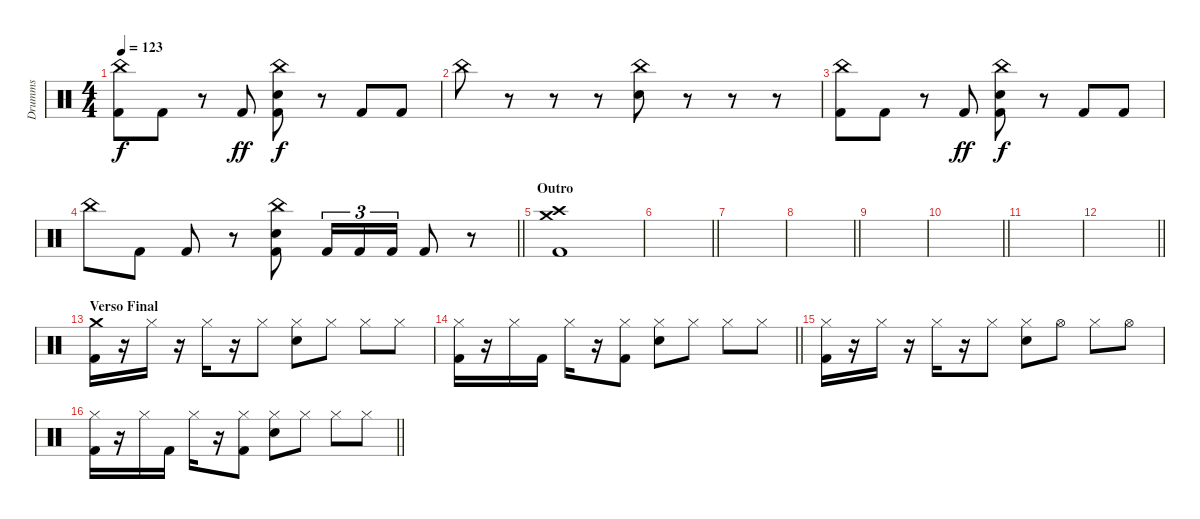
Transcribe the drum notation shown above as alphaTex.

\track ("Drumms" "Drumms") {instrument percussion}
\staff {score}
\articulation defaults
\ts (4 4)
\tempo 123
\clef neutral
\ks aminor
("China (hit)" "Kick (hit) 2").8{dy f} "Kick (hit) 2".8 r.8 "Kick (hit) 2".8{dy ff} ("China (hit)" "Electric Snare (hit)" "Kick (hit) 2").8{dy f} r.8 "Kick (hit) 2".8 "Kick (hit) 2".8 |
"China (hit)".8 r.8 r.8 r.8 ("China (hit)" "Electric Snare (hit)").8 r.8 r.8 r.8 |
("China (hit)" "Kick (hit) 2").8 "Kick (hit) 2".8 r.8 "Kick (hit) 2".8{dy ff} ("China (hit)" "Electric Snare (hit)" "Kick (hit) 2").8{dy f} r.8 "Kick (hit) 2".8 "Kick (hit) 2".8 |
\barLineRight lightlight "China (hit)".8 "Kick (hit) 2".8 "Kick (hit) 2".8
r.8 ("China (hit)" "Electric Snare (hit)" "Kick (hit) 2").8 "Kick (hit) 2".16{tu (3 2)} "Kick (hit) 2".16{tu (3 2)} "Kick (hit) 2".16{tu (3 2)} "Kick (hit) 2".8 r.8 |
\section ("" "Outro")
("Crash high (hit)" "Crash medium (hit)" "Kick (hit) 2").1 |
\barLineRight lightlight
|
|
\barLineRight lightlight
|
|
\barLineRight lightlight
|
|
\barLineRight lightlight
|
\section ("" "Verso Final ")
("Crash medium (hit)" "Kick (hit) 2").16 r.16 "Hi-Hat (closed)".16 r.16 "Hi-Hat (closed)".16 r.16 "Hi-Hat (closed)".8 ("Hi-Hat (closed)" "Snare (hit) 2").8 "Hi-Hat (closed)".8 "Hi-Hat (closed)".8 "Hi-Hat (closed)".8 |
\barLineRight lightlight
("Hi-Hat (closed)" "Kick (hit) 2").16 r.16 "Hi-Hat (closed)".16 "Kick (hit) 2".16 "Hi-Hat (closed)".16 r.16 ("Hi-Hat (closed)" "Kick (hit) 2").8 ("Hi-Hat (closed)" "Snare (hit) 2").8 "Hi-Hat (closed)".8 "Hi-Hat (closed)".8 "Hi-Hat (closed)".8 |
("Hi-Hat (closed)" "Kick (hit) 2").16 r.16 "Hi-Hat (closed)".16 r.16 "Hi-Hat (closed)".16 r.16 "Hi-Hat (closed)".8 ("Hi-Hat (closed)" "Snare (hit) 2").8 "Hi-Hat (open)".8 "Hi-Hat (closed)".8 "Hi-Hat (open)".8 |
\barLineRight lightlight
("Hi-Hat (closed)" "Kick (hit) 2").16 r.16 "Hi-Hat (closed)".16 "Kick (hit) 2".16 "Hi-Hat (closed)".16 r.16 ("Hi-Hat (closed)" "Kick (hit) 2").8 ("Hi-Hat (closed)" "Snare (hit) 2").8 "Hi-Hat (closed)".8 "Hi-Hat (closed)".8 "Hi-Hat (closed)".8
